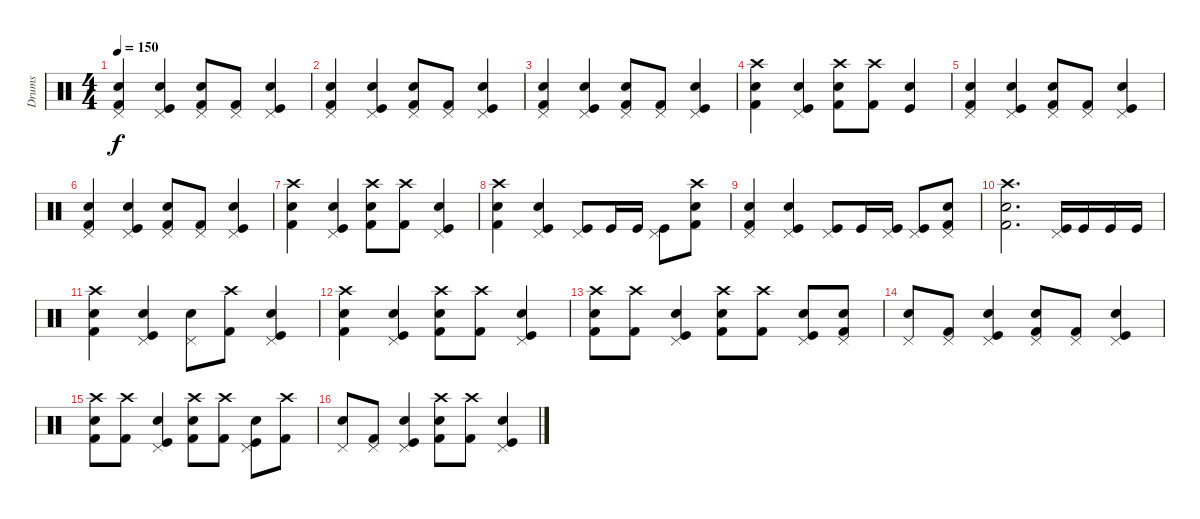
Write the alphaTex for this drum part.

\track ("Drums" "Drums") {instrument percussion}
\staff {score}
\articulation defaults
\ts (4 4)
\tempo 150
\clef neutral
\ks c
("Kick (hit) 2" "Electric Snare (hit)" "Pedal Hi-Hat (hit)").4{dy f} ("Kick (hit)" "Electric Snare (hit)" "Pedal Hi-Hat (hit)").4 ("Kick (hit) 2" "Electric Snare (hit)" "Pedal Hi-Hat (hit)").8 ("Kick (hit) 2" "Pedal Hi-Hat (hit)").8 ("Kick (hit)" "Electric Snare (hit)" "Pedal Hi-Hat (hit)").4 |
("Kick (hit) 2" "Electric Snare (hit)" "Pedal Hi-Hat (hit)").4 ("Kick (hit)" "Electric Snare (hit)" "Pedal Hi-Hat (hit)").4 ("Kick (hit) 2" "Electric Snare (hit)" "Pedal Hi-Hat (hit)").8 ("Kick (hit) 2" "Pedal Hi-Hat (hit)").8 ("Kick (hit)" "Electric Snare (hit)" "Pedal Hi-Hat (hit)").4 |
("Kick (hit) 2" "Electric Snare (hit)" "Pedal Hi-Hat (hit)").4 ("Kick (hit)" "Electric Snare (hit)" "Pedal Hi-Hat (hit)").4 ("Kick (hit) 2" "Electric Snare (hit)" "Pedal Hi-Hat (hit)").8 ("Kick (hit) 2" "Pedal Hi-Hat (hit)").8 ("Kick (hit)" "Electric Snare (hit)" "Pedal Hi-Hat (hit)").4 |
("Kick (hit) 2" "Electric Snare (hit)" "Crash high (hit)").4 ("Kick (hit)" "Electric Snare (hit)" "Pedal Hi-Hat (hit)").4 ("Kick (hit) 2" "Electric Snare (hit)" "Crash high (hit)").8 ("Kick (hit) 2" "Crash high (hit)").8 ("Kick (hit)" "Electric Snare (hit)").4 |
("Kick (hit) 2" "Electric Snare (hit)" "Pedal Hi-Hat (hit)").4 ("Kick (hit)" "Electric Snare (hit)" "Pedal Hi-Hat (hit)").4 ("Kick (hit) 2" "Electric Snare (hit)" "Pedal Hi-Hat (hit)").8 ("Kick (hit) 2" "Pedal Hi-Hat (hit)").8 ("Kick (hit)" "Electric Snare (hit)" "Pedal Hi-Hat (hit)").4 |
("Kick (hit) 2" "Electric Snare (hit)" "Pedal Hi-Hat (hit)").4 ("Kick (hit)" "Electric Snare (hit)" "Pedal Hi-Hat (hit)").4 ("Kick (hit) 2" "Electric Snare (hit)" "Pedal Hi-Hat (hit)").8 ("Kick (hit) 2" "Pedal Hi-Hat (hit)").8 ("Kick (hit)" "Electric Snare (hit)" "Pedal Hi-Hat (hit)").4 |
("Kick (hit) 2" "Electric Snare (hit)" "Crash high (hit)").4 ("Kick (hit)" "Electric Snare (hit)" "Pedal Hi-Hat (hit)").4 ("Kick (hit) 2" "Electric Snare (hit)" "Crash high (hit)").8 ("Kick (hit) 2" "Crash high (hit)").8 ("Kick (hit)" "Electric Snare (hit)" "Pedal Hi-Hat (hit)").4 |
("Kick (hit) 2" "Electric Snare (hit)" "Crash high (hit)").4 ("Kick (hit)" "Electric Snare (hit)" "Pedal Hi-Hat (hit)").4 ("Kick (hit)" "Pedal Hi-Hat (hit)").8 "Kick (hit)".16 "Kick (hit)".16 ("Kick (hit)" "Pedal Hi-Hat (hit)").8 ("Kick (hit) 2" "Electric Snare (hit)" "Crash high (hit)").8 |
("Kick (hit) 2" "Electric Snare (hit)" "Pedal Hi-Hat (hit)").4 ("Kick (hit)" "Electric Snare (hit)" "Pedal Hi-Hat (hit)").4 ("Kick (hit)" "Pedal Hi-Hat (hit)").8 "Kick (hit)".16 ("Kick (hit)" "Pedal Hi-Hat (hit)").16 ("Kick (hit)" "Pedal Hi-Hat (hit)").8 ("Kick (hit) 2" "Electric Snare (hit)" "Pedal Hi-Hat (hit)").8 |
("Kick (hit) 2" "Electric Snare (hit)" "Crash high (hit)").2{d} ("Kick (hit)" "Pedal Hi-Hat (hit)").16 "Kick (hit)".16 "Kick (hit)".16 "Kick (hit)".16 |
("Kick (hit) 2" "Electric Snare (hit)" "Crash high (hit)").4 ("Kick (hit)" "Electric Snare (hit)" "Pedal Hi-Hat (hit)").4 ("Electric Snare (hit)" "Pedal Hi-Hat (hit)").8 ("Kick (hit) 2" "Crash high (hit)").8 ("Kick (hit)" "Electric Snare (hit)" "Pedal Hi-Hat (hit)").4 |
("Kick (hit) 2" "Electric Snare (hit)" "Crash high (hit)").4 ("Kick (hit)" "Electric Snare (hit)" "Pedal Hi-Hat (hit)").4 ("Kick (hit) 2" "Electric Snare (hit)" "Crash high (hit)").8 ("Kick (hit) 2" "Crash high (hit)").8 ("Kick (hit)" "Electric Snare (hit)" "Pedal Hi-Hat (hit)").4 |
("Kick (hit) 2" "Electric Snare (hit)" "Crash high (hit)").8 ("Kick (hit) 2" "Crash high (hit)").8 ("Kick (hit)" "Electric Snare (hit)" "Pedal Hi-Hat (hit)").4 ("Kick (hit) 2" "Electric Snare (hit)" "Crash high (hit)").8 ("Kick (hit) 2" "Crash high (hit)").8 ("Kick (hit)" "Electric Snare (hit)" "Pedal Hi-Hat (hit)").8 ("Kick (hit) 2" "Electric Snare (hit)" "Pedal Hi-Hat (hit)").8 |
("Electric Snare (hit)" "Pedal Hi-Hat (hit)").8 ("Kick (hit) 2" "Pedal Hi-Hat (hit)").8 ("Kick (hit)" "Electric Snare (hit)" "Pedal Hi-Hat (hit)").4 ("Kick (hit) 2" "Electric Snare (hit)" "Pedal Hi-Hat (hit)").8 ("Kick (hit) 2" "Pedal Hi-Hat (hit)").8 ("Kick (hit)" "Electric Snare (hit)" "Pedal Hi-Hat (hit)").4 |
("Kick (hit) 2" "Electric Snare (hit)" "Crash high (hit)").8 ("Kick (hit) 2" "Crash high (hit)").8 ("Kick (hit)" "Electric Snare (hit)" "Pedal Hi-Hat (hit)").4 ("Kick (hit) 2" "Electric Snare (hit)" "Crash high (hit)").8 ("Kick (hit) 2" "Crash high (hit)").8 ("Kick (hit)" "Electric Snare (hit)" "Pedal Hi-Hat (hit)").8 ("Kick (hit) 2" "Crash high (hit)").8 |
("Electric Snare (hit)" "Pedal Hi-Hat (hit)").8 ("Kick (hit) 2" "Pedal Hi-Hat (hit)").8 ("Kick (hit)" "Electric Snare (hit)" "Pedal Hi-Hat (hit)").4 ("Kick (hit) 2" "Electric Snare (hit)" "Crash high (hit)").8 ("Kick (hit) 2" "Crash high (hit)").8 ("Kick (hit)" "Electric Snare (hit)" "Pedal Hi-Hat (hit)").4
